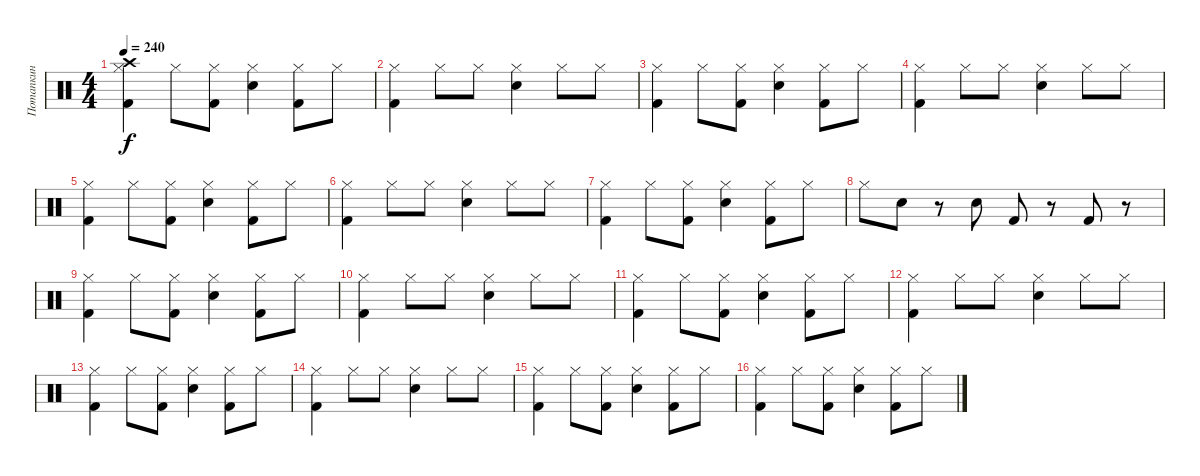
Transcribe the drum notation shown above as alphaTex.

\track ("Потапкин" "Потапкин") {instrument percussion}
\staff {score}
\articulation defaults
\ts (4 4)
\tempo 240
\clef neutral
\ks c
("Crash high (hit)" "Hi-Hat (closed)" "Kick (hit) 2").4{dy f} "Hi-Hat (closed)".8 ("Hi-Hat (closed)" "Kick (hit) 2").8 ("Hi-Hat (closed)" "Electric Snare (hit)").4 ("Kick (hit) 2" "Hi-Hat (closed)").8 "Hi-Hat (closed)".8 |
("Hi-Hat (closed)" "Kick (hit) 2").4 "Hi-Hat (closed)".8 "Hi-Hat (closed)".8 ("Hi-Hat (closed)" "Electric Snare (hit)").4 "Hi-Hat (closed)".8 "Hi-Hat (closed)".8 |
("Hi-Hat (closed)" "Kick (hit) 2").4 "Hi-Hat (closed)".8 ("Hi-Hat (closed)" "Kick (hit) 2").8 ("Hi-Hat (closed)" "Electric Snare (hit)").4 ("Kick (hit) 2" "Hi-Hat (closed)").8 "Hi-Hat (closed)".8 |
("Hi-Hat (closed)" "Kick (hit) 2").4 "Hi-Hat (closed)".8 "Hi-Hat (closed)".8 ("Hi-Hat (closed)" "Electric Snare (hit)").4 "Hi-Hat (closed)".8 "Hi-Hat (closed)".8 |
("Hi-Hat (closed)" "Kick (hit) 2").4 "Hi-Hat (closed)".8 ("Hi-Hat (closed)" "Kick (hit) 2").8 ("Hi-Hat (closed)" "Electric Snare (hit)").4 ("Kick (hit) 2" "Hi-Hat (closed)").8 "Hi-Hat (closed)".8 |
("Hi-Hat (closed)" "Kick (hit) 2").4 "Hi-Hat (closed)".8 "Hi-Hat (closed)".8 ("Hi-Hat (closed)" "Electric Snare (hit)").4 "Hi-Hat (closed)".8 "Hi-Hat (closed)".8 |
("Hi-Hat (closed)" "Kick (hit) 2").4 "Hi-Hat (closed)".8 ("Hi-Hat (closed)" "Kick (hit) 2").8 ("Hi-Hat (closed)" "Electric Snare (hit)").4 ("Kick (hit) 2" "Hi-Hat (closed)").8 "Hi-Hat (closed)".8 |
"Hi-Hat (closed)".8 "Electric Snare (hit)".8 r.8 "Electric Snare (hit)".8 "Kick (hit) 2".8 r.8 "Kick (hit) 2".8 r.8 |
("Hi-Hat (closed)" "Kick (hit) 2").4 "Hi-Hat (closed)".8 ("Hi-Hat (closed)" "Kick (hit) 2").8 ("Hi-Hat (closed)" "Electric Snare (hit)").4 ("Kick (hit) 2" "Hi-Hat (closed)").8 "Hi-Hat (closed)".8 |
("Hi-Hat (closed)" "Kick (hit) 2").4 "Hi-Hat (closed)".8 "Hi-Hat (closed)".8 ("Hi-Hat (closed)" "Electric Snare (hit)").4 "Hi-Hat (closed)".8 "Hi-Hat (closed)".8 |
("Hi-Hat (closed)" "Kick (hit) 2").4 "Hi-Hat (closed)".8 ("Hi-Hat (closed)" "Kick (hit) 2").8 ("Hi-Hat (closed)" "Electric Snare (hit)").4 ("Kick (hit) 2" "Hi-Hat (closed)").8 "Hi-Hat (closed)".8 |
("Hi-Hat (closed)" "Kick (hit) 2").4 "Hi-Hat (closed)".8 "Hi-Hat (closed)".8 ("Hi-Hat (closed)" "Electric Snare (hit)").4 "Hi-Hat (closed)".8 "Hi-Hat (closed)".8 |
("Hi-Hat (closed)" "Kick (hit) 2").4 "Hi-Hat (closed)".8 ("Hi-Hat (closed)" "Kick (hit) 2").8 ("Hi-Hat (closed)" "Electric Snare (hit)").4 ("Kick (hit) 2" "Hi-Hat (closed)").8 "Hi-Hat (closed)".8 |
("Hi-Hat (closed)" "Kick (hit) 2").4 "Hi-Hat (closed)".8 "Hi-Hat (closed)".8 ("Hi-Hat (closed)" "Electric Snare (hit)").4 "Hi-Hat (closed)".8 "Hi-Hat (closed)".8 |
("Hi-Hat (closed)" "Kick (hit) 2").4 "Hi-Hat (closed)".8 ("Hi-Hat (closed)" "Kick (hit) 2").8 ("Hi-Hat (closed)" "Electric Snare (hit)").4 ("Kick (hit) 2" "Hi-Hat (closed)").8 "Hi-Hat (closed)".8 |
("Hi-Hat (closed)" "Kick (hit) 2").4 "Hi-Hat (closed)".8 ("Hi-Hat (closed)" "Kick (hit) 2").8 ("Hi-Hat (closed)" "Electric Snare (hit)").4 ("Kick (hit) 2" "Hi-Hat (closed)").8 "Hi-Hat (closed)".8
